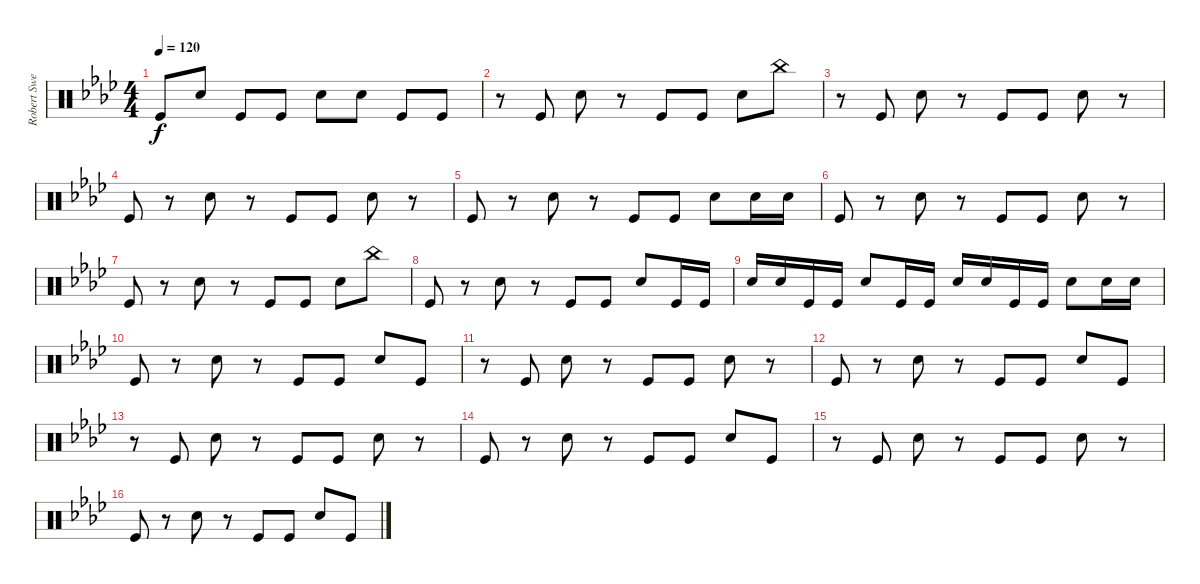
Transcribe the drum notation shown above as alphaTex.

\track ("Robert Sweet" "Robert Swe") {instrument percussion}
\staff {score}
\articulation defaults
\ts (4 4)
\tempo 120
\clef neutral
\ks ab "Kick (hit)".8{dy f} "Snare (hit) 2".8 "Kick (hit)".8 "Kick (hit)".8 "Snare (hit) 2".8 "Snare (hit) 2".8 "Kick (hit)".8 "Kick (hit)".8
|
r.8 "Kick (hit)".8 "Snare (hit) 2".8 r.8 "Kick (hit)".8 "Kick (hit)".8 "Snare (hit) 2".8 "China (hit)".8 |
r.8 "Kick (hit)".8 "Snare (hit) 2".8 r.8 "Kick (hit)".8 "Kick (hit)".8 "Snare (hit) 2".8 r.8 |
"Kick (hit)".8 r.8 "Snare (hit) 2".8 r.8 "Kick (hit)".8 "Kick (hit)".8 "Snare (hit) 2".8 r.8 |
"Kick (hit)".8 r.8 "Snare (hit) 2".8 r.8 "Kick (hit)".8 "Kick (hit)".8 "Snare (hit) 2".8 "Snare (hit) 2".16 "Snare (hit) 2".16 |
"Kick (hit)".8 r.8 "Snare (hit) 2".8 r.8 "Kick (hit)".8 "Kick (hit)".8 "Snare (hit) 2".8 r.8 |
"Kick (hit)".8 r.8 "Snare (hit) 2".8 r.8 "Kick (hit)".8 "Kick (hit)".8 "Snare (hit) 2".8 "China (hit)".8 |
"Kick (hit)".8 r.8 "Snare (hit) 2".8 r.8 "Kick (hit)".8 "Kick (hit)".8 "Snare (hit) 2".8 "Kick (hit)".16 "Kick (hit)".16 |
"Snare (hit) 2".16 "Snare (hit) 2".16 "Kick (hit)".16 "Kick (hit)".16 "Snare (hit) 2".8 "Kick (hit)".16 "Kick (hit)".16 "Snare (hit) 2".16 "Snare (hit) 2".16 "Kick (hit)".16 "Kick (hit)".16 "Snare (hit) 2".8 "Snare (hit) 2".16 "Snare (hit) 2".16 |
"Kick (hit)".8 r.8 "Snare (hit) 2".8 r.8 "Kick (hit)".8 "Kick (hit)".8 "Snare (hit) 2".8 "Kick (hit)".8 |
r.8 "Kick (hit)".8 "Snare (hit) 2".8 r.8 "Kick (hit)".8 "Kick (hit)".8 "Snare (hit) 2".8 r.8 |
"Kick (hit)".8 r.8 "Snare (hit) 2".8 r.8 "Kick (hit)".8 "Kick (hit)".8 "Snare (hit) 2".8 "Kick (hit)".8 |
r.8 "Kick (hit)".8 "Snare (hit) 2".8 r.8 "Kick (hit)".8 "Kick (hit)".8 "Snare (hit) 2".8 r.8 |
"Kick (hit)".8 r.8 "Snare (hit) 2".8 r.8 "Kick (hit)".8 "Kick (hit)".8 "Snare (hit) 2".8 "Kick (hit)".8 |
r.8 "Kick (hit)".8 "Snare (hit) 2".8 r.8 "Kick (hit)".8 "Kick (hit)".8 "Snare (hit) 2".8 r.8 |
"Kick (hit)".8 r.8 "Snare (hit) 2".8 r.8 "Kick (hit)".8 "Kick (hit)".8 "Snare (hit) 2".8 "Kick (hit)".8
